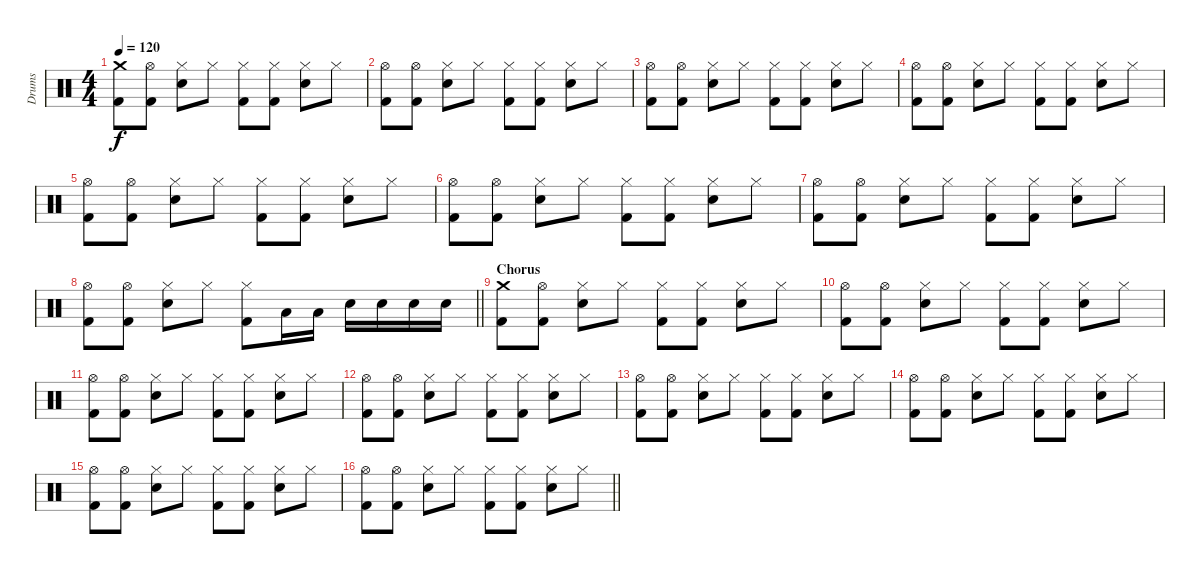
\track ("Drums" "Drums") {instrument percussion}
\staff {score}
\articulation defaults
\ts (4 4)
\tempo 120
\clef neutral
\ks c
("Crash medium (hit)" "Kick (hit) 2").8{dy f} ("Hi-Hat (open)" "Kick (hit) 2").8 ("Hi-Hat (closed)" "Electric Snare (hit)").8 "Hi-Hat (closed)".8 ("Hi-Hat (closed)" "Kick (hit) 2").8 ("Hi-Hat (closed)" "Kick (hit) 2").8 ("Hi-Hat (closed)" "Electric Snare (hit)").8 "Hi-Hat (closed)".8 |
("Hi-Hat (open)" "Kick (hit) 2").8 ("Hi-Hat (open)" "Kick (hit) 2").8 ("Hi-Hat (closed)" "Electric Snare (hit)").8 "Hi-Hat (closed)".8 ("Hi-Hat (closed)" "Kick (hit) 2").8 ("Hi-Hat (closed)" "Kick (hit) 2").8 ("Hi-Hat (closed)" "Electric Snare (hit)").8 "Hi-Hat (closed)".8 |
("Hi-Hat (open)" "Kick (hit) 2").8 ("Hi-Hat (open)" "Kick (hit) 2").8 ("Hi-Hat (closed)" "Electric Snare (hit)").8 "Hi-Hat (closed)".8 ("Hi-Hat (closed)" "Kick (hit) 2").8 ("Hi-Hat (closed)" "Kick (hit) 2").8 ("Hi-Hat (closed)" "Electric Snare (hit)").8 "Hi-Hat (closed)".8 |
("Hi-Hat (open)" "Kick (hit) 2").8 ("Hi-Hat (open)" "Kick (hit) 2").8 ("Hi-Hat (closed)" "Electric Snare (hit)").8 "Hi-Hat (closed)".8 ("Hi-Hat (closed)" "Kick (hit) 2").8 ("Hi-Hat (closed)" "Kick (hit) 2").8 ("Hi-Hat (closed)" "Electric Snare (hit)").8 "Hi-Hat (closed)".8 |
("Hi-Hat (open)" "Kick (hit) 2").8 ("Hi-Hat (open)" "Kick (hit) 2").8 ("Hi-Hat (closed)" "Electric Snare (hit)").8 "Hi-Hat (closed)".8 ("Hi-Hat (closed)" "Kick (hit) 2").8 ("Hi-Hat (closed)" "Kick (hit) 2").8 ("Hi-Hat (closed)" "Electric Snare (hit)").8 "Hi-Hat (closed)".8 |
("Hi-Hat (open)" "Kick (hit) 2").8 ("Hi-Hat (open)" "Kick (hit) 2").8 ("Hi-Hat (closed)" "Electric Snare (hit)").8 "Hi-Hat (closed)".8 ("Hi-Hat (closed)" "Kick (hit) 2").8 ("Hi-Hat (closed)" "Kick (hit) 2").8 ("Hi-Hat (closed)" "Electric Snare (hit)").8 "Hi-Hat (closed)".8 |
("Hi-Hat (open)" "Kick (hit) 2").8 ("Hi-Hat (open)" "Kick (hit) 2").8 ("Hi-Hat (closed)" "Electric Snare (hit)").8 "Hi-Hat (closed)".8 ("Hi-Hat (closed)" "Kick (hit) 2").8 ("Hi-Hat (closed)" "Kick (hit) 2").8 ("Hi-Hat (closed)" "Electric Snare (hit)").8 "Hi-Hat (closed)".8 |
\barLineRight lightlight
("Hi-Hat (open)" "Kick (hit) 2").8 ("Hi-Hat (open)" "Kick (hit) 2").8 ("Hi-Hat (closed)" "Electric Snare (hit)").8 "Hi-Hat (closed)".8 ("Hi-Hat (closed)" "Kick (hit) 2").8 "Low Tom (hit)".16 "Low Tom (hit)".16 "Snare (hit) 2".16 "Snare (hit) 2".16 "Snare (hit) 2".16 "Snare (hit) 2".16 |
\section ("" "Chorus")
("Crash medium (hit)" "Kick (hit) 2").8 ("Hi-Hat (open)" "Kick (hit) 2").8 ("Hi-Hat (closed)" "Electric Snare (hit)").8 "Hi-Hat (closed)".8 ("Hi-Hat (closed)" "Kick (hit) 2").8 ("Hi-Hat (closed)" "Kick (hit) 2").8 ("Hi-Hat (closed)" "Electric Snare (hit)").8 "Hi-Hat (closed)".8 |
("Hi-Hat (open)" "Kick (hit) 2").8 ("Hi-Hat (open)" "Kick (hit) 2").8 ("Hi-Hat (closed)" "Electric Snare (hit)").8 "Hi-Hat (closed)".8 ("Hi-Hat (closed)" "Kick (hit) 2").8 ("Hi-Hat (closed)" "Kick (hit) 2").8 ("Hi-Hat (closed)" "Electric Snare (hit)").8 "Hi-Hat (closed)".8 |
("Hi-Hat (open)" "Kick (hit) 2").8 ("Hi-Hat (open)" "Kick (hit) 2").8 ("Hi-Hat (closed)" "Electric Snare (hit)").8 "Hi-Hat (closed)".8 ("Hi-Hat (closed)" "Kick (hit) 2").8 ("Hi-Hat (closed)" "Kick (hit) 2").8 ("Hi-Hat (closed)" "Electric Snare (hit)").8 "Hi-Hat (closed)".8 |
("Hi-Hat (open)" "Kick (hit) 2").8 ("Hi-Hat (open)" "Kick (hit) 2").8 ("Hi-Hat (closed)" "Electric Snare (hit)").8 "Hi-Hat (closed)".8 ("Hi-Hat (closed)" "Kick (hit) 2").8 ("Hi-Hat (closed)" "Kick (hit) 2").8 ("Hi-Hat (closed)" "Electric Snare (hit)").8 "Hi-Hat (closed)".8 |
("Hi-Hat (open)" "Kick (hit) 2").8 ("Hi-Hat (open)" "Kick (hit) 2").8 ("Hi-Hat (closed)" "Electric Snare (hit)").8 "Hi-Hat (closed)".8 ("Hi-Hat (closed)" "Kick (hit) 2").8 ("Hi-Hat (closed)" "Kick (hit) 2").8 ("Hi-Hat (closed)" "Electric Snare (hit)").8 "Hi-Hat (closed)".8 |
("Hi-Hat (open)" "Kick (hit) 2").8 ("Hi-Hat (open)" "Kick (hit) 2").8 ("Hi-Hat (closed)" "Electric Snare (hit)").8 "Hi-Hat (closed)".8 ("Hi-Hat (closed)" "Kick (hit) 2").8 ("Hi-Hat (closed)" "Kick (hit) 2").8 ("Hi-Hat (closed)" "Electric Snare (hit)").8 "Hi-Hat (closed)".8 |
("Hi-Hat (open)" "Kick (hit) 2").8 ("Hi-Hat (open)" "Kick (hit) 2").8 ("Hi-Hat (closed)" "Electric Snare (hit)").8 "Hi-Hat (closed)".8 ("Hi-Hat (closed)" "Kick (hit) 2").8 ("Hi-Hat (closed)" "Kick (hit) 2").8 ("Hi-Hat (closed)" "Electric Snare (hit)").8 "Hi-Hat (closed)".8 |
\barLineRight lightlight
("Hi-Hat (open)" "Kick (hit) 2").8 ("Hi-Hat (open)" "Kick (hit) 2").8 ("Hi-Hat (closed)" "Electric Snare (hit)").8 "Hi-Hat (closed)".8 ("Hi-Hat (closed)" "Kick (hit) 2").8 ("Hi-Hat (closed)" "Kick (hit) 2").8 ("Hi-Hat (closed)" "Electric Snare (hit)").8 "Hi-Hat (closed)".8
